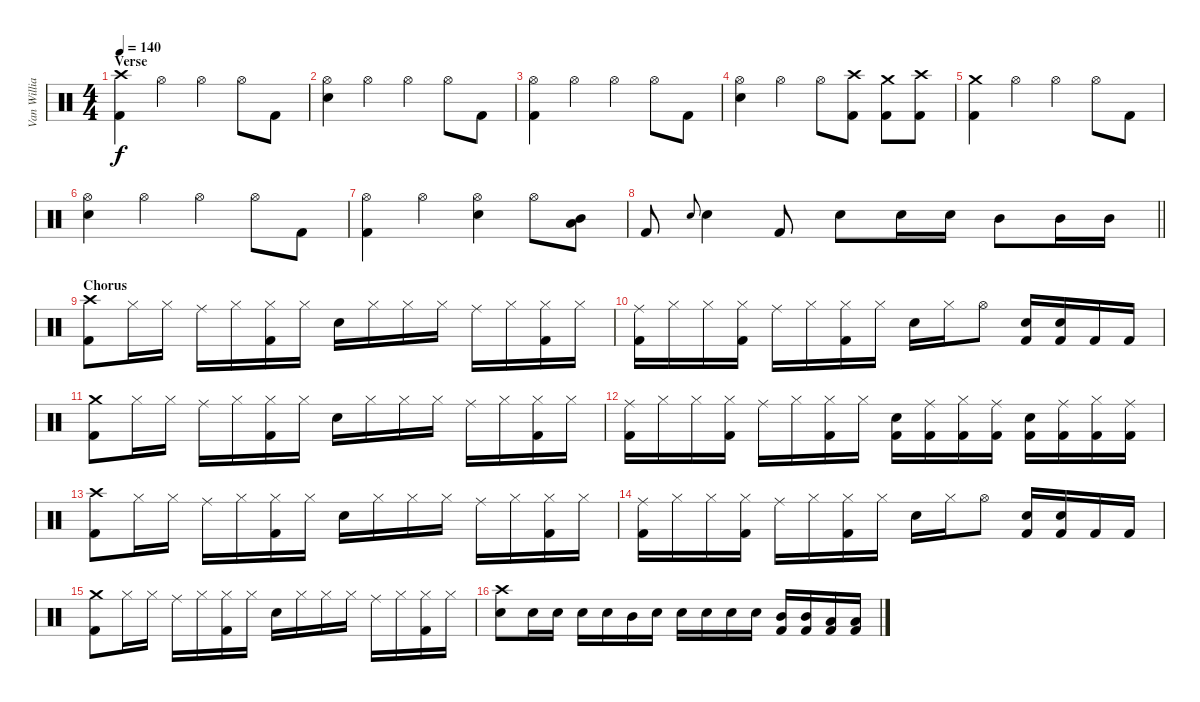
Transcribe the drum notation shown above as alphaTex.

\track ("Van Williams" "Van Willia") {instrument percussion}
\staff {score}
\articulation defaults
\ts (4 4)
\section ("" "Verse")
\tempo 140
\clef neutral
\ks c
("Crash high (hit)" "Kick (hit) 2").4{dy f} "Hi-Hat (open)".4 "Hi-Hat (open)".4 "Hi-Hat (open)".8 "Kick (hit) 2".8 |
("Hi-Hat (open)" "Electric Snare (hit)").4 "Hi-Hat (open)".4 "Hi-Hat (open)".4 "Hi-Hat (open)".8 "Kick (hit) 2".8 |
("Hi-Hat (open)" "Kick (hit) 2").4 "Hi-Hat (open)".4 "Hi-Hat (open)".4 "Hi-Hat (open)".8 "Kick (hit) 2".8 |
("Hi-Hat (open)" "Electric Snare (hit)").4 "Hi-Hat (open)".4 "Hi-Hat (open)".8 ("Crash high (hit)" "Kick (hit) 2").8 ("Crash medium (hit)" "Kick (hit) 2").8 ("Crash high (hit)" "Kick (hit) 2").8 |
("Crash medium (hit)" "Kick (hit) 2").4 "Hi-Hat (open)".4 "Hi-Hat (open)".4 "Hi-Hat (open)".8 "Kick (hit) 2".8 |
("Hi-Hat (open)" "Electric Snare (hit)").4 "Hi-Hat (open)".4 "Hi-Hat (open)".4 "Hi-Hat (open)".8 "Kick (hit) 2".8 |
("Hi-Hat (open)" "Kick (hit) 2").4 "Hi-Hat (open)".4 ("Hi-Hat (open)" "Electric Snare (hit)").4 "Hi-Hat (open)".8 ("Mid Tom (hit)" "Low Tom (hit)").8 |
\barLineRight lightlight "Kick (hit) 2".8 "Electric Snare (hit)".8{gr onbeat} "Electric Snare (hit)".4 "Kick (hit) 2".8 "Electric Snare (hit)".8 "Electric Snare (hit)".16 "Electric Snare (hit)".16 "Mid Tom (hit)".8 "Mid Tom (hit)".16 "Mid Tom (hit)".16
|
\section ("" "Chorus")
("Crash high (hit)" "Kick (hit) 2").8 "Hi-Hat (closed)".16 "Hi-Hat (closed)".16 "Ride (middle)".16 "Hi-Hat (closed)".16 ("Hi-Hat (closed)" "Kick (hit) 2").16 "Hi-Hat (closed)".16 "Electric Snare (hit)".16 "Hi-Hat (closed)".16 "Hi-Hat (closed)".16 "Hi-Hat (closed)".16 "Ride (middle)".16 "Hi-Hat (closed)".16 ("Hi-Hat (closed)" "Kick (hit) 2").16 "Hi-Hat (closed)".16 |
("Ride (middle)" "Kick (hit) 2").16 "Hi-Hat (closed)".16 "Hi-Hat (closed)".16 ("Hi-Hat (closed)" "Kick (hit) 2").16 "Ride (middle)".16 "Hi-Hat (closed)".16 ("Hi-Hat (closed)" "Kick (hit) 2").16 "Hi-Hat (closed)".16 "Electric Snare (hit)".16 "Hi-Hat (closed)".16 "Hi-Hat (open)".8 ("Electric Snare (hit)" "Kick (hit) 2").16 ("Electric Snare (hit)" "Kick (hit) 2").16 "Kick (hit) 2".16 "Kick (hit) 2".16 |
("Crash medium (hit)" "Kick (hit) 2").8 "Hi-Hat (closed)".16 "Hi-Hat (closed)".16 "Ride (middle)".16 "Hi-Hat (closed)".16 ("Hi-Hat (closed)" "Kick (hit) 2").16 "Hi-Hat (closed)".16 "Electric Snare (hit)".16 "Hi-Hat (closed)".16 "Hi-Hat (closed)".16 "Hi-Hat (closed)".16 "Ride (middle)".16 "Hi-Hat (closed)".16 ("Hi-Hat (closed)" "Kick (hit) 2").16 "Hi-Hat (closed)".16 |
("Ride (middle)" "Kick (hit) 2").16 "Hi-Hat (closed)".16 "Hi-Hat (closed)".16 ("Hi-Hat (closed)" "Kick (hit) 2").16 "Ride (middle)".16 "Hi-Hat (closed)".16 ("Hi-Hat (closed)" "Kick (hit) 2").16 "Hi-Hat (closed)".16 ("Electric Snare (hit)" "Kick (hit) 2").16 ("Ride (middle)" "Kick (hit) 2").16 ("Hi-Hat (closed)" "Kick (hit) 2").16 ("Ride (middle)" "Kick (hit) 2").16 ("Electric Snare (hit)" "Kick (hit) 2").16 ("Ride (middle)" "Kick (hit) 2").16 ("Hi-Hat (closed)" "Kick (hit) 2").16 ("Ride (middle)" "Kick (hit) 2").16 |
("Crash high (hit)" "Kick (hit) 2").8 "Hi-Hat (closed)".16 "Hi-Hat (closed)".16 "Ride (middle)".16 "Hi-Hat (closed)".16 ("Hi-Hat (closed)" "Kick (hit) 2").16 "Hi-Hat (closed)".16 "Electric Snare (hit)".16 "Hi-Hat (closed)".16 "Hi-Hat (closed)".16 "Hi-Hat (closed)".16 "Ride (middle)".16 "Hi-Hat (closed)".16 ("Hi-Hat (closed)" "Kick (hit) 2").16 "Hi-Hat (closed)".16 |
("Ride (middle)" "Kick (hit) 2").16 "Hi-Hat (closed)".16 "Hi-Hat (closed)".16 ("Hi-Hat (closed)" "Kick (hit) 2").16 "Ride (middle)".16 "Hi-Hat (closed)".16 ("Hi-Hat (closed)" "Kick (hit) 2").16 "Hi-Hat (closed)".16 "Electric Snare (hit)".16 "Hi-Hat (closed)".16 "Hi-Hat (open)".8 ("Electric Snare (hit)" "Kick (hit) 2").16 ("Electric Snare (hit)" "Kick (hit) 2").16 "Kick (hit) 2".16 "Kick (hit) 2".16 |
("Crash medium (hit)" "Kick (hit) 2").8 "Hi-Hat (closed)".16 "Hi-Hat (closed)".16 "Ride (middle)".16 "Hi-Hat (closed)".16 ("Hi-Hat (closed)" "Kick (hit) 2").16 "Hi-Hat (closed)".16 "Electric Snare (hit)".16 "Hi-Hat (closed)".16 "Hi-Hat (closed)".16 "Hi-Hat (closed)".16 "Ride (middle)".16 "Hi-Hat (closed)".16 ("Hi-Hat (closed)" "Kick (hit) 2").16 "Hi-Hat (closed)".16 |
("Crash high (hit)" "Electric Snare (hit)").8 "Electric Snare (hit)".16 "Electric Snare (hit)".16 "Electric Snare (hit)".16 "Electric Snare (hit)".16 "Mid Tom (hit)".16 "Electric Snare (hit)".16 "Electric Snare (hit)".16 "Electric Snare (hit)".16 "Electric Snare (hit)".16 "Electric Snare (hit)".16 ("Mid Tom (hit)" "Kick (hit) 2").16 ("Mid Tom (hit)" "Kick (hit) 2").16 ("Low Tom (hit)" "Kick (hit) 2").16 ("Low Tom (hit)" "Kick (hit) 2").16
